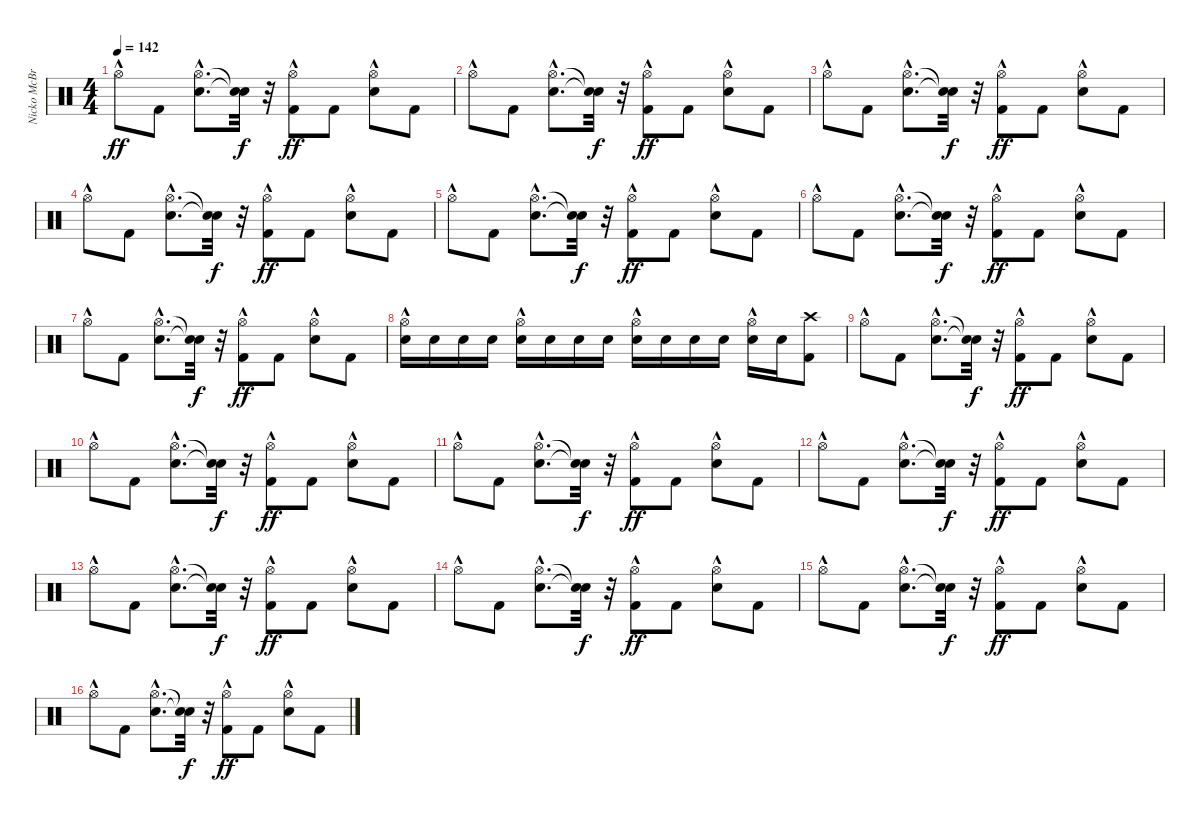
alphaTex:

\track ("Nicko McBrain" "Nicko McBr") {instrument percussion}
\staff {score}
\articulation defaults
\ts (4 4)
\tempo 142
\clef neutral
\ks c "Hi-Hat (open)"{hac}.8{dy ff} "Kick (hit) 2".8
("Snare (hit) 2"{hac} "Hi-Hat (open)"{hac}).8{d} ("Snare (hit)"{t} "Snare (hit)"{t}).32{dy f} r.32 ("Kick (hit) 2" "Hi-Hat (open)"{hac}).8{dy ff} "Kick (hit) 2".8 ("Snare (hit) 2" "Hi-Hat (open)"{hac}).8 "Kick (hit) 2".8 |
"Hi-Hat (open)"{hac}.8 "Kick (hit) 2".8 ("Snare (hit) 2"{hac} "Hi-Hat (open)"{hac}).8{d} ("Snare (hit)"{t} "Snare (hit)"{t}).32{dy f} r.32 ("Kick (hit) 2" "Hi-Hat (open)"{hac}).8{dy ff} "Kick (hit) 2".8 ("Snare (hit) 2" "Hi-Hat (open)"{hac}).8 "Kick (hit) 2".8 |
"Hi-Hat (open)"{hac}.8 "Kick (hit) 2".8 ("Snare (hit) 2"{hac} "Hi-Hat (open)"{hac}).8{d} ("Snare (hit)"{t} "Snare (hit)"{t}).32{dy f} r.32 ("Kick (hit) 2" "Hi-Hat (open)"{hac}).8{dy ff} "Kick (hit) 2".8 ("Snare (hit) 2" "Hi-Hat (open)"{hac}).8 "Kick (hit) 2".8 |
"Hi-Hat (open)"{hac}.8 "Kick (hit) 2".8 ("Snare (hit) 2"{hac} "Hi-Hat (open)"{hac}).8{d} ("Snare (hit)"{t} "Snare (hit)"{t}).32{dy f} r.32 ("Kick (hit) 2" "Hi-Hat (open)"{hac}).8{dy ff} "Kick (hit) 2".8 ("Snare (hit) 2" "Hi-Hat (open)"{hac}).8 "Kick (hit) 2".8 |
"Hi-Hat (open)"{hac}.8 "Kick (hit) 2".8 ("Snare (hit) 2"{hac} "Hi-Hat (open)"{hac}).8{d} ("Snare (hit)"{t} "Snare (hit)"{t}).32{dy f} r.32 ("Kick (hit) 2" "Hi-Hat (open)"{hac}).8{dy ff} "Kick (hit) 2".8 ("Snare (hit) 2" "Hi-Hat (open)"{hac}).8 "Kick (hit) 2".8 |
"Hi-Hat (open)"{hac}.8 "Kick (hit) 2".8 ("Snare (hit) 2"{hac} "Hi-Hat (open)"{hac}).8{d} ("Snare (hit)"{t} "Snare (hit)"{t}).32{dy f} r.32 ("Kick (hit) 2" "Hi-Hat (open)"{hac}).8{dy ff} "Kick (hit) 2".8 ("Snare (hit) 2" "Hi-Hat (open)"{hac}).8 "Kick (hit) 2".8 |
"Hi-Hat (open)"{hac}.8 "Kick (hit) 2".8 ("Snare (hit) 2"{hac} "Hi-Hat (open)"{hac}).8{d} ("Snare (hit)"{t} "Snare (hit)"{t}).32{dy f} r.32 ("Kick (hit) 2" "Hi-Hat (open)"{hac}).8{dy ff} "Kick (hit) 2".8 ("Snare (hit) 2" "Hi-Hat (open)"{hac}).8 "Kick (hit) 2".8 |
("Snare (hit) 2" "Hi-Hat (open)"{hac}).16 "Snare (hit) 2".16 "Snare (hit) 2".16 "Snare (hit) 2".16 ("Snare (hit) 2" "Hi-Hat (open)"{hac}).16 "Snare (hit) 2".16 "Snare (hit) 2".16 "Snare (hit) 2".16 ("Snare (hit) 2" "Hi-Hat (open)"{hac}).16 "Snare (hit) 2".16 "Snare (hit) 2".16 "Snare (hit) 2".16 ("Snare (hit) 2" "Hi-Hat (open)"{hac}).16 "Snare (hit) 2".16 ("Kick (hit) 2" "Crash high (hit)").8 |
"Hi-Hat (open)"{hac}.8 "Kick (hit) 2".8 ("Snare (hit) 2"{hac} "Hi-Hat (open)"{hac}).8{d} ("Snare (hit)"{t} "Snare (hit)"{t}).32{dy f} r.32 ("Kick (hit) 2" "Hi-Hat (open)"{hac}).8{dy ff} "Kick (hit) 2".8 ("Snare (hit) 2" "Hi-Hat (open)"{hac}).8 "Kick (hit) 2".8 |
"Hi-Hat (open)"{hac}.8 "Kick (hit) 2".8 ("Snare (hit) 2"{hac} "Hi-Hat (open)"{hac}).8{d} ("Snare (hit)"{t} "Snare (hit)"{t}).32{dy f} r.32 ("Kick (hit) 2" "Hi-Hat (open)"{hac}).8{dy ff} "Kick (hit) 2".8 ("Snare (hit) 2" "Hi-Hat (open)"{hac}).8 "Kick (hit) 2".8 |
"Hi-Hat (open)"{hac}.8 "Kick (hit) 2".8 ("Snare (hit) 2"{hac} "Hi-Hat (open)"{hac}).8{d} ("Snare (hit)"{t} "Snare (hit)"{t}).32{dy f} r.32 ("Kick (hit) 2" "Hi-Hat (open)"{hac}).8{dy ff} "Kick (hit) 2".8 ("Snare (hit) 2" "Hi-Hat (open)"{hac}).8 "Kick (hit) 2".8 |
"Hi-Hat (open)"{hac}.8 "Kick (hit) 2".8 ("Snare (hit) 2"{hac} "Hi-Hat (open)"{hac}).8{d} ("Snare (hit)"{t} "Snare (hit)"{t}).32{dy f} r.32 ("Kick (hit) 2" "Hi-Hat (open)"{hac}).8{dy ff} "Kick (hit) 2".8 ("Snare (hit) 2" "Hi-Hat (open)"{hac}).8 "Kick (hit) 2".8 |
"Hi-Hat (open)"{hac}.8 "Kick (hit) 2".8 ("Snare (hit) 2"{hac} "Hi-Hat (open)"{hac}).8{d} ("Snare (hit)"{t} "Snare (hit)"{t}).32{dy f} r.32 ("Kick (hit) 2" "Hi-Hat (open)"{hac}).8{dy ff} "Kick (hit) 2".8 ("Snare (hit) 2" "Hi-Hat (open)"{hac}).8 "Kick (hit) 2".8 |
"Hi-Hat (open)"{hac}.8 "Kick (hit) 2".8 ("Snare (hit) 2"{hac} "Hi-Hat (open)"{hac}).8{d} ("Snare (hit)"{t} "Snare (hit)"{t}).32{dy f} r.32 ("Kick (hit) 2" "Hi-Hat (open)"{hac}).8{dy ff} "Kick (hit) 2".8 ("Snare (hit) 2" "Hi-Hat (open)"{hac}).8 "Kick (hit) 2".8 |
"Hi-Hat (open)"{hac}.8 "Kick (hit) 2".8 ("Snare (hit) 2"{hac} "Hi-Hat (open)"{hac}).8{d} ("Snare (hit)"{t} "Snare (hit)"{t}).32{dy f} r.32 ("Kick (hit) 2" "Hi-Hat (open)"{hac}).8{dy ff} "Kick (hit) 2".8 ("Snare (hit) 2" "Hi-Hat (open)"{hac}).8 "Kick (hit) 2".8 |
"Hi-Hat (open)"{hac}.8 "Kick (hit) 2".8 ("Snare (hit) 2"{hac} "Hi-Hat (open)"{hac}).8{d} ("Snare (hit)"{t} "Snare (hit)"{t}).32{dy f} r.32 ("Kick (hit) 2" "Hi-Hat (open)"{hac}).8{dy ff} "Kick (hit) 2".8 ("Snare (hit) 2" "Hi-Hat (open)"{hac}).8 "Kick (hit) 2".8
